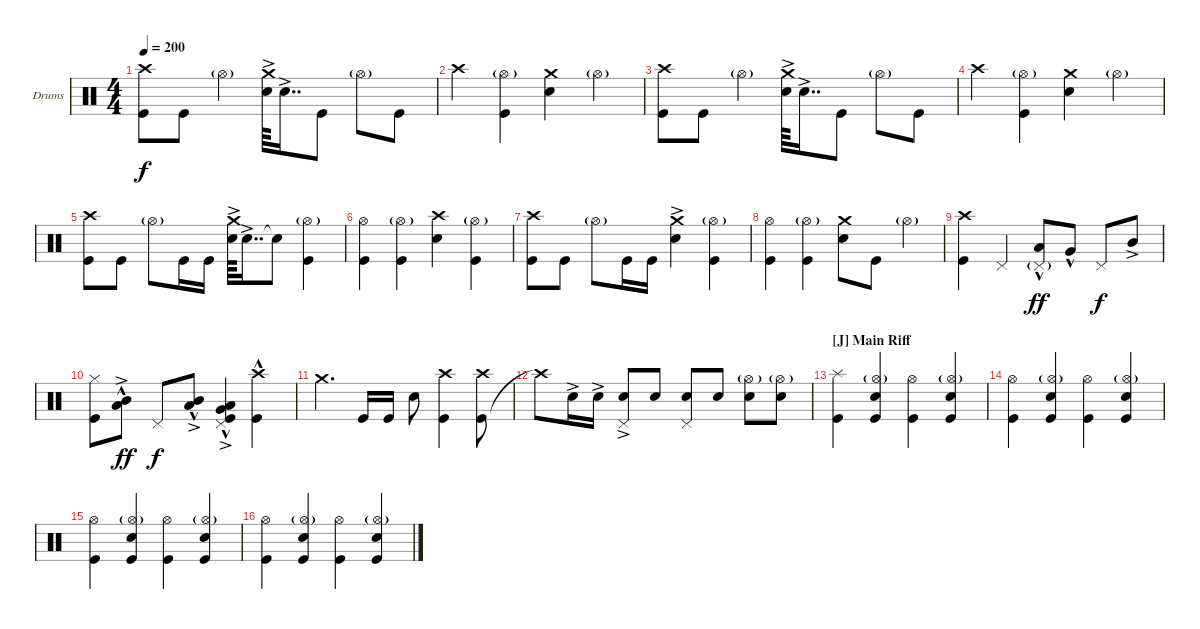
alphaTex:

\defaultSystemsLayout 4
\bracketExtendMode groupsimilarinstruments
\firstSystemTrackNameOrientation horizontal
\otherSystemsTrackNameOrientation horizontal
\track ("Drumkit" "Drums") {instrument percussion}
\staff {score}
\articulation defaults
\ts (4 4)
\tempo 200
\clef neutral
\ks c
("Kick (hit)" "Crash high (hit)").8{dy f} "Kick (hit)".8 "Hi-Hat (open)"{g}.4 ("Snare (hit) 2"{ac} "Crash medium (hit)").64 "Snare (hit) 2"{ac}.16{dd} "Kick (hit)".8 "Hi-Hat (open)"{g}.8 "Kick (hit)".8 |
"Crash high (hit)".4 ("Kick (hit)" "Hi-Hat (open)"{g}).4 ("Snare (hit) 2" "Crash medium (hit)").4 "Hi-Hat (open)"{g}.4 |
("Kick (hit)" "Crash high (hit)").8 "Kick (hit)".8 "Hi-Hat (open)"{g}.4 ("Snare (hit) 2"{ac} "Crash medium (hit)").64 "Snare (hit) 2"{ac}.16{dd} "Kick (hit)".8 "Hi-Hat (open)"{g}.8 "Kick (hit)".8 |
"Crash high (hit)".4 ("Kick (hit)" "Hi-Hat (open)"{g}).4 ("Snare (hit) 2" "Crash medium (hit)").4 "Hi-Hat (open)"{g}.4 |
("Kick (hit)" "Crash high (hit)").8 "Kick (hit)".8 "Hi-Hat (open)"{g}.8 "Kick (hit)".16 "Kick (hit)".16 ("Snare (hit) 2"{ac} "Crash medium (hit)").64 "Snare (hit) 2"{ac}.16{dd} "Snare (hit) 2"{t}.8 ("Hi-Hat (open)"{g} "Kick (hit)").4 |
("Kick (hit)" "Hi-Hat (open)").4 ("Hi-Hat (open)"{g} "Kick (hit)").4 ("Crash high (hit)" "Snare (hit) 2").4 ("Hi-Hat (open)"{g} "Kick (hit)").4 |
("Kick (hit)" "Crash high (hit)").8 "Kick (hit)".8 "Hi-Hat (open)"{g}.8 "Kick (hit)".16 "Kick (hit)".16 ("Snare (hit) 2"{ac} "Crash medium (hit)").4 ("Hi-Hat (open)"{g} "Kick (hit)").4 |
("Kick (hit)" "Hi-Hat (open)").4 ("Hi-Hat (open)"{g} "Kick (hit)").4 ("Snare (hit) 2" "Crash medium (hit)").8 "Kick (hit)".8 "Hi-Hat (open)"{g}.4 |
("Kick (hit)" "Crash high (hit)").4 "Pedal Hi-Hat (hit)".4 ("Low Tom (hit)"{hac} "Pedal Hi-Hat (hit)"{g}).8{dy ff} "Very Low Tom (hit)"{hac}.8 "Pedal Hi-Hat (hit)".8{dy f} "Mid Tom (hit)"{ac}.8 |
("Kick (hit)" "Hi-Hat (closed)").8 ("Low Tom (hit)"{hac} "Mid Tom (hit)"{ac}).8{dy ff} "Pedal Hi-Hat (hit)".8{dy f} ("Low Tom (hit)"{hac} "Mid Tom (hit)"{ac}).8 ("Kick (hit)" "Very Low Tom (hit)"{hac} "Low Tom (hit)"{ac} "Pedal Hi-Hat (hit)").4 ("Kick (hit)"{hac} "Crash high (hit)").4 |
"Crash medium (hit)".4{d} "Kick (hit)".16 "Kick (hit)".16 "Snare (hit) 2".8 ("Kick (hit)" "Crash high (hit)").4 ("Kick (hit)" "Crash high (hit)").8 |
"Crash high (hit)"{t}.8 "Snare (hit) 2"{ac}.16 "Snare (hit) 2"{ac}.16 ("Snare (hit) 2"{ac} "Pedal Hi-Hat (hit)").8 "Snare (hit) 2".8 ("Snare (hit) 2" "Pedal Hi-Hat (hit)").8 "Snare (hit) 2".8 ("Snare (hit) 2" "Hi-Hat (open)"{g}).8 ("Snare (hit) 2" "Hi-Hat (open)"{g}).8 |
\section ("J" "Main Riff")
("Splash (hit)" "Kick (hit)").4 ("Snare (hit) 2" "Kick (hit)" "Hi-Hat (open)"{g}).4 ("Kick (hit)" "Hi-Hat (open)").4 ("Snare (hit) 2" "Kick (hit)" "Hi-Hat (open)"{g}).4 |
("Kick (hit)" "Hi-Hat (open)").4 ("Snare (hit) 2" "Kick (hit)" "Hi-Hat (open)"{g}).4 ("Kick (hit)" "Hi-Hat (open)").4 ("Snare (hit) 2" "Kick (hit)" "Hi-Hat (open)"{g}).4 |
("Kick (hit)" "Hi-Hat (open)").4 ("Snare (hit) 2" "Kick (hit)" "Hi-Hat (open)"{g}).4 ("Kick (hit)" "Hi-Hat (open)").4 ("Snare (hit) 2" "Kick (hit)" "Hi-Hat (open)"{g}).4 |
("Kick (hit)" "Hi-Hat (open)").4 ("Snare (hit) 2" "Kick (hit)" "Hi-Hat (open)"{g}).4 ("Kick (hit)" "Hi-Hat (open)").4 ("Snare (hit) 2" "Kick (hit)" "Hi-Hat (open)"{g}).4
